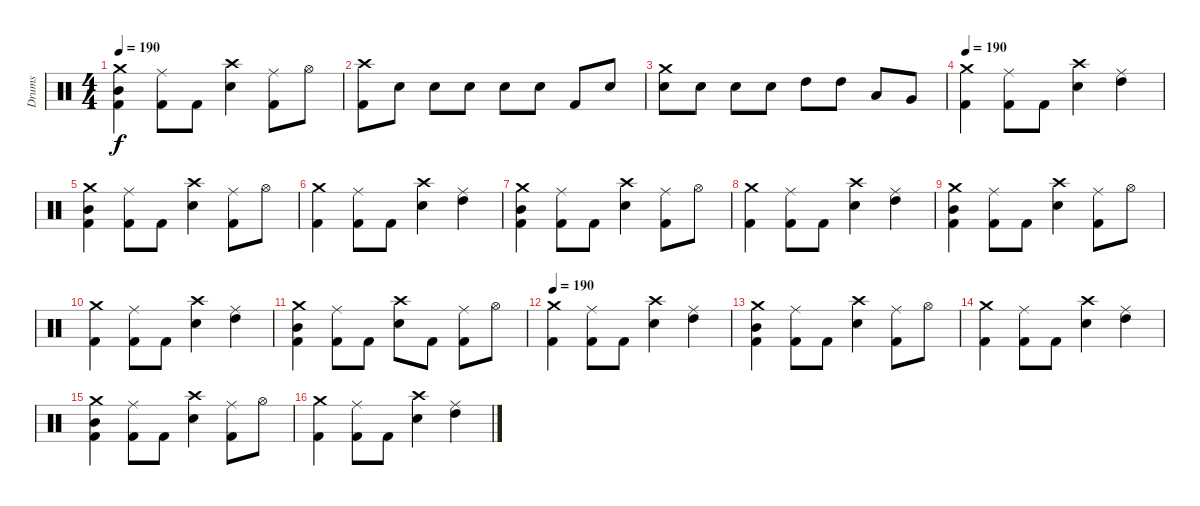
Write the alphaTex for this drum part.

\track ("Drums" "Drums") {instrument percussion}
\staff {score}
\articulation defaults
\ts (4 4)
\tempo 190
\clef neutral
\ks c
("Crash medium (hit)" "Mid Tom (hit)" "Kick (hit) 2").4{dy f} ("Ride (middle)" "Kick (hit) 2").8 "Kick (hit) 2".8 ("Crash high (hit)" "Electric Snare (hit)").4 ("Ride (middle)" "Kick (hit) 2").8 "Hi-Hat (open)".8 |
("Crash high (hit)" "Kick (hit) 2").8 "Electric Snare (hit)".8 "Electric Snare (hit)".8 "Electric Snare (hit)".8 "Electric Snare (hit)".8 "Electric Snare (hit)".8 "Kick (hit) 2".8 "Electric Snare (hit)".8 |
("Crash medium (hit)" "Electric Snare (hit)").8 "Electric Snare (hit)".8 "Electric Snare (hit)".8 "Electric Snare (hit)".8 "High Tom (hit)".8 "High Tom (hit)".8 "Low Tom (hit)".8 "Very Low Tom (hit)".8 |
\tempo 190
("Crash medium (hit)" "Kick (hit) 2").4 ("Ride (middle)" "Kick (hit) 2").8 "Kick (hit) 2".8 ("Crash high (hit)" "Electric Snare (hit)").4 ("Ride (middle)" "High Tom (hit)").4 |
("Crash medium (hit)" "Mid Tom (hit)" "Kick (hit) 2").4 ("Ride (middle)" "Kick (hit) 2").8 "Kick (hit) 2".8 ("Crash high (hit)" "Electric Snare (hit)").4 ("Ride (middle)" "Kick (hit) 2").8 "Hi-Hat (open)".8 |
("Crash medium (hit)" "Kick (hit) 2").4 ("Ride (middle)" "Kick (hit) 2").8 "Kick (hit) 2".8 ("Crash high (hit)" "Electric Snare (hit)").4 ("Ride (middle)" "High Tom (hit)").4 |
("Crash medium (hit)" "Mid Tom (hit)" "Kick (hit) 2").4 ("Ride (middle)" "Kick (hit) 2").8 "Kick (hit) 2".8 ("Crash high (hit)" "Electric Snare (hit)").4 ("Ride (middle)" "Kick (hit) 2").8 "Hi-Hat (open)".8 |
("Crash medium (hit)" "Kick (hit) 2").4 ("Ride (middle)" "Kick (hit) 2").8 "Kick (hit) 2".8 ("Crash high (hit)" "Electric Snare (hit)").4 ("Ride (middle)" "High Tom (hit)").4 |
("Crash medium (hit)" "Mid Tom (hit)" "Kick (hit) 2").4 ("Ride (middle)" "Kick (hit) 2").8 "Kick (hit) 2".8 ("Crash high (hit)" "Electric Snare (hit)").4 ("Ride (middle)" "Kick (hit) 2").8 "Hi-Hat (open)".8 |
("Crash medium (hit)" "Kick (hit) 2").4 ("Ride (middle)" "Kick (hit) 2").8 "Kick (hit) 2".8 ("Crash high (hit)" "Electric Snare (hit)").4 ("Ride (middle)" "High Tom (hit)").4 |
("Crash medium (hit)" "Mid Tom (hit)" "Kick (hit) 2").4 ("Ride (middle)" "Kick (hit) 2").8 "Kick (hit) 2".8 ("Crash high (hit)" "Electric Snare (hit)").8 "Kick (hit) 2".8 ("Ride (middle)" "Kick (hit) 2").8 "Hi-Hat (open)".8 |
\tempo 190
("Crash medium (hit)" "Kick (hit) 2").4 ("Ride (middle)" "Kick (hit) 2").8 "Kick (hit) 2".8 ("Crash high (hit)" "Electric Snare (hit)").4 ("Ride (middle)" "High Tom (hit)").4 |
("Crash medium (hit)" "Mid Tom (hit)" "Kick (hit) 2").4 ("Ride (middle)" "Kick (hit) 2").8 "Kick (hit) 2".8 ("Crash high (hit)" "Electric Snare (hit)").4 ("Ride (middle)" "Kick (hit) 2").8 "Hi-Hat (open)".8 |
("Crash medium (hit)" "Kick (hit) 2").4 ("Ride (middle)" "Kick (hit) 2").8 "Kick (hit) 2".8 ("Crash high (hit)" "Electric Snare (hit)").4 ("Ride (middle)" "High Tom (hit)").4 |
("Crash medium (hit)" "Mid Tom (hit)" "Kick (hit) 2").4 ("Ride (middle)" "Kick (hit) 2").8 "Kick (hit) 2".8 ("Crash high (hit)" "Electric Snare (hit)").4 ("Ride (middle)" "Kick (hit) 2").8 "Hi-Hat (open)".8 |
("Crash medium (hit)" "Kick (hit) 2").4 ("Ride (middle)" "Kick (hit) 2").8 "Kick (hit) 2".8 ("Crash high (hit)" "Electric Snare (hit)").4 ("Ride (middle)" "High Tom (hit)").4
